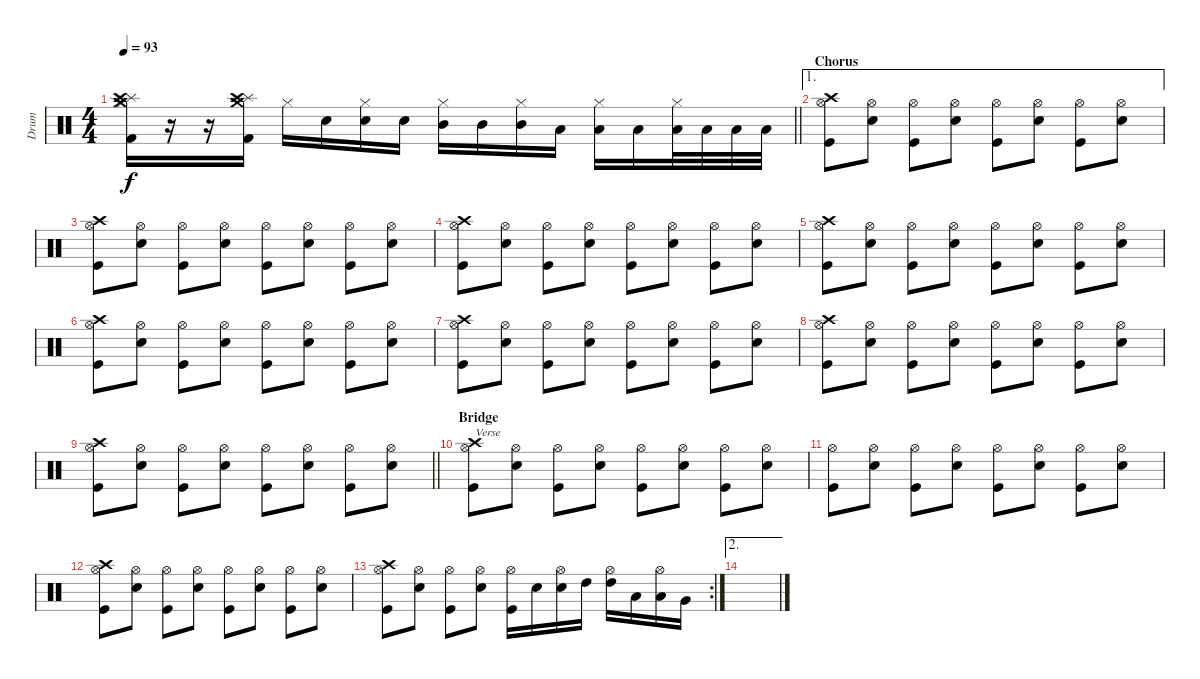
\track ("Drum" "Drum") {instrument percussion}
\staff {score}
\articulation defaults
\ts (4 4)
\tempo 93
\clef neutral
\barLineRight lightlight
\ks c
("Hi-Hat (closed)" "Splash (hit)" "Kick (hit) 2" "Crash high (hit)" "Crash medium (hit)").16{dy f} r.16 r.16 ("Splash (hit)" "Kick (hit) 2" "Crash high (hit)" "Crash medium (hit)").16 "Hi-Hat (closed)".16 "Snare (hit) 2".16 ("Hi-Hat (closed)" "Snare (hit) 2").16 "Snare (hit) 2".16 ("Hi-Hat (closed)" "Mid Tom (hit)").16 "Mid Tom (hit)".16 ("Hi-Hat (closed)" "Mid Tom (hit)").16 "Low Tom (hit)".16 ("Hi-Hat (closed)" "Low Tom (hit)").16 "Low Tom (hit)".16 ("Hi-Hat (closed)" "Low Floor Tom (hit)").32 "Low Floor Tom (hit)".32 "Low Floor Tom (hit)".32 "Low Floor Tom (hit)".32 |
\ae 1
\section ("" "Chorus")
("Kick (hit)" "Hi-Hat (open)" "Crash high (hit)").8 ("Snare (hit) 2" "Hi-Hat (open)").8 ("Kick (hit)" "Hi-Hat (open)").8 ("Snare (hit) 2" "Hi-Hat (open)").8 ("Kick (hit)" "Hi-Hat (open)").8 ("Snare (hit) 2" "Hi-Hat (open)").8 ("Kick (hit)" "Hi-Hat (open)").8 ("Snare (hit) 2" "Hi-Hat (open)").8 |
("Kick (hit)" "Hi-Hat (open)" "Crash high (hit)").8 ("Snare (hit) 2" "Hi-Hat (open)").8 ("Kick (hit)" "Hi-Hat (open)").8 ("Snare (hit) 2" "Hi-Hat (open)").8 ("Kick (hit)" "Hi-Hat (open)").8 ("Snare (hit) 2" "Hi-Hat (open)").8 ("Kick (hit)" "Hi-Hat (open)").8 ("Snare (hit) 2" "Hi-Hat (open)").8 |
("Kick (hit)" "Hi-Hat (open)" "Crash high (hit)").8 ("Snare (hit) 2" "Hi-Hat (open)").8 ("Kick (hit)" "Hi-Hat (open)").8 ("Snare (hit) 2" "Hi-Hat (open)").8 ("Kick (hit)" "Hi-Hat (open)").8 ("Snare (hit) 2" "Hi-Hat (open)").8 ("Kick (hit)" "Hi-Hat (open)").8 ("Snare (hit) 2" "Hi-Hat (open)").8 |
("Kick (hit)" "Hi-Hat (open)" "Crash high (hit)").8 ("Snare (hit) 2" "Hi-Hat (open)").8 ("Kick (hit)" "Hi-Hat (open)").8 ("Snare (hit) 2" "Hi-Hat (open)").8 ("Kick (hit)" "Hi-Hat (open)").8 ("Snare (hit) 2" "Hi-Hat (open)").8 ("Kick (hit)" "Hi-Hat (open)").8 ("Snare (hit) 2" "Hi-Hat (open)").8 |
("Kick (hit)" "Hi-Hat (open)" "Crash high (hit)").8 ("Snare (hit) 2" "Hi-Hat (open)").8 ("Kick (hit)" "Hi-Hat (open)").8 ("Snare (hit) 2" "Hi-Hat (open)").8 ("Kick (hit)" "Hi-Hat (open)").8 ("Snare (hit) 2" "Hi-Hat (open)").8 ("Kick (hit)" "Hi-Hat (open)").8 ("Snare (hit) 2" "Hi-Hat (open)").8 |
("Kick (hit)" "Hi-Hat (open)" "Crash high (hit)").8 ("Snare (hit) 2" "Hi-Hat (open)").8 ("Kick (hit)" "Hi-Hat (open)").8 ("Snare (hit) 2" "Hi-Hat (open)").8 ("Kick (hit)" "Hi-Hat (open)").8 ("Snare (hit) 2" "Hi-Hat (open)").8 ("Kick (hit)" "Hi-Hat (open)").8 ("Snare (hit) 2" "Hi-Hat (open)").8 |
("Kick (hit)" "Hi-Hat (open)" "Crash high (hit)").8 ("Snare (hit) 2" "Hi-Hat (open)").8 ("Kick (hit)" "Hi-Hat (open)").8 ("Snare (hit) 2" "Hi-Hat (open)").8 ("Kick (hit)" "Hi-Hat (open)").8 ("Snare (hit) 2" "Hi-Hat (open)").8 ("Kick (hit)" "Hi-Hat (open)").8 ("Snare (hit) 2" "Hi-Hat (open)").8 |
\barLineRight lightlight
("Kick (hit)" "Hi-Hat (open)" "Crash high (hit)").8 ("Snare (hit) 2" "Hi-Hat (open)").8 ("Kick (hit)" "Hi-Hat (open)").8 ("Snare (hit) 2" "Hi-Hat (open)").8 ("Kick (hit)" "Hi-Hat (open)").8 ("Snare (hit) 2" "Hi-Hat (open)").8 ("Kick (hit)" "Hi-Hat (open)").8 ("Snare (hit) 2" "Hi-Hat (open)").8 |
\section ("" "Bridge")
("Kick (hit)" "Hi-Hat (open)" "Crash high (hit)").8{txt "Verse"} ("Snare (hit) 2" "Hi-Hat (open)").8 ("Kick (hit)" "Hi-Hat (open)").8 ("Snare (hit) 2" "Hi-Hat (open)").8 ("Kick (hit)" "Hi-Hat (open)").8 ("Snare (hit) 2" "Hi-Hat (open)").8 ("Kick (hit)" "Hi-Hat (open)").8 ("Snare (hit) 2" "Hi-Hat (open)").8 |
("Kick (hit)" "Hi-Hat (open)").8 ("Snare (hit) 2" "Hi-Hat (open)").8 ("Kick (hit)" "Hi-Hat (open)").8 ("Snare (hit) 2" "Hi-Hat (open)").8 ("Kick (hit)" "Hi-Hat (open)").8 ("Snare (hit) 2" "Hi-Hat (open)").8 ("Kick (hit)" "Hi-Hat (open)").8 ("Snare (hit) 2" "Hi-Hat (open)").8 |
("Kick (hit)" "Hi-Hat (open)" "Crash high (hit)").8 ("Snare (hit) 2" "Hi-Hat (open)").8 ("Kick (hit)" "Hi-Hat (open)").8 ("Snare (hit) 2" "Hi-Hat (open)").8 ("Kick (hit)" "Hi-Hat (open)").8 ("Snare (hit) 2" "Hi-Hat (open)").8 ("Kick (hit)" "Hi-Hat (open)").8 ("Snare (hit) 2" "Hi-Hat (open)").8 |
\rc 2
("Kick (hit)" "Hi-Hat (open)" "Crash high (hit)").8 ("Snare (hit) 2" "Hi-Hat (open)").8 ("Kick (hit)" "Hi-Hat (open)").8 ("Snare (hit) 2" "Hi-Hat (open)").8 ("Kick (hit)" "Hi-Hat (open)").16 "Snare (hit) 2".16 ("Hi-Hat (open)" "Snare (hit) 2").16 "High Tom (hit)".16 ("Hi-Hat (open)" "High Tom (hit)").16 "Low Tom (hit)".16 ("Hi-Hat (open)" "Low Tom (hit)").16 "Very Low Tom (hit)".16 |
\ae 2
